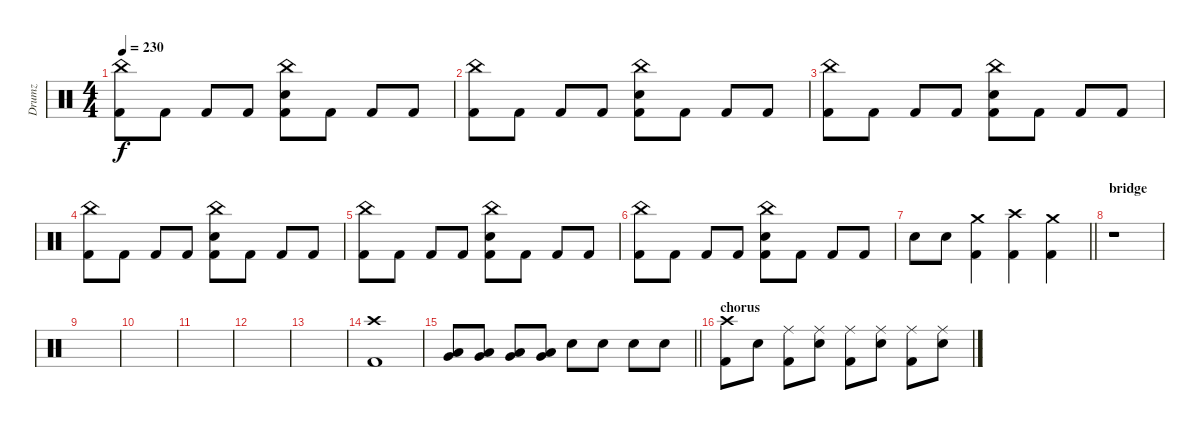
\track ("Drumz" "Drumz") {instrument percussion}
\staff {score}
\articulation defaults
\ts (4 4)
\tempo 230
\clef neutral
\ks c
("China (hit)" "Kick (hit) 2").8{dy f} "Kick (hit) 2".8 "Kick (hit) 2".8 "Kick (hit) 2".8 ("China (hit)" "Electric Snare (hit)" "Kick (hit) 2").8 "Kick (hit) 2".8 "Kick (hit) 2".8 "Kick (hit) 2".8 |
("China (hit)" "Kick (hit) 2").8 "Kick (hit) 2".8 "Kick (hit) 2".8 "Kick (hit) 2".8 ("China (hit)" "Electric Snare (hit)" "Kick (hit) 2").8 "Kick (hit) 2".8 "Kick (hit) 2".8 "Kick (hit) 2".8 |
("China (hit)" "Kick (hit) 2").8 "Kick (hit) 2".8 "Kick (hit) 2".8 "Kick (hit) 2".8 ("China (hit)" "Electric Snare (hit)" "Kick (hit) 2").8 "Kick (hit) 2".8 "Kick (hit) 2".8 "Kick (hit) 2".8 |
("China (hit)" "Kick (hit) 2").8 "Kick (hit) 2".8 "Kick (hit) 2".8 "Kick (hit) 2".8 ("China (hit)" "Electric Snare (hit)" "Kick (hit) 2").8 "Kick (hit) 2".8 "Kick (hit) 2".8 "Kick (hit) 2".8 |
("China (hit)" "Kick (hit) 2").8 "Kick (hit) 2".8 "Kick (hit) 2".8 "Kick (hit) 2".8 ("China (hit)" "Electric Snare (hit)" "Kick (hit) 2").8 "Kick (hit) 2".8 "Kick (hit) 2".8 "Kick (hit) 2".8 |
("China (hit)" "Kick (hit) 2").8 "Kick (hit) 2".8 "Kick (hit) 2".8 "Kick (hit) 2".8 ("China (hit)" "Electric Snare (hit)" "Kick (hit) 2").8 "Kick (hit) 2".8 "Kick (hit) 2".8 "Kick (hit) 2".8 |
\barLineRight lightlight "Electric Snare (hit)".8 "Electric Snare (hit)".8
("Crash medium (hit)" "Kick (hit) 2").4 ("Crash high (hit)" "Kick (hit) 2").4 ("Crash medium (hit)" "Kick (hit) 2").4 |
\section ("" "bridge")
r.1{volume 0} |
|
|
|
|
|
("Crash high (hit)" "Kick (hit) 2").1{volume 16} |
\barLineRight lightlight
("Low Tom (hit)" "Very Low Tom (hit)").8 ("Low Tom (hit)" "Very Low Tom (hit)").8 ("Low Tom (hit)" "Very Low Tom (hit)").8 ("Low Tom (hit)" "Very Low Tom (hit)").8 "Electric Snare (hit)".8 "Electric Snare (hit)".8 "Electric Snare (hit)".8 "Electric Snare (hit)".8 |
\section ("" "chorus")
("Crash high (hit)" "Kick (hit) 2").8 "Electric Snare (hit)".8 ("Ride (middle)" "Kick (hit) 2").8 ("Ride (middle)" "Electric Snare (hit)").8 ("Ride (middle)" "Kick (hit) 2").8 ("Ride (middle)" "Electric Snare (hit)").8 ("Ride (middle)" "Kick (hit) 2").8 ("Ride (middle)" "Electric Snare (hit)").8
